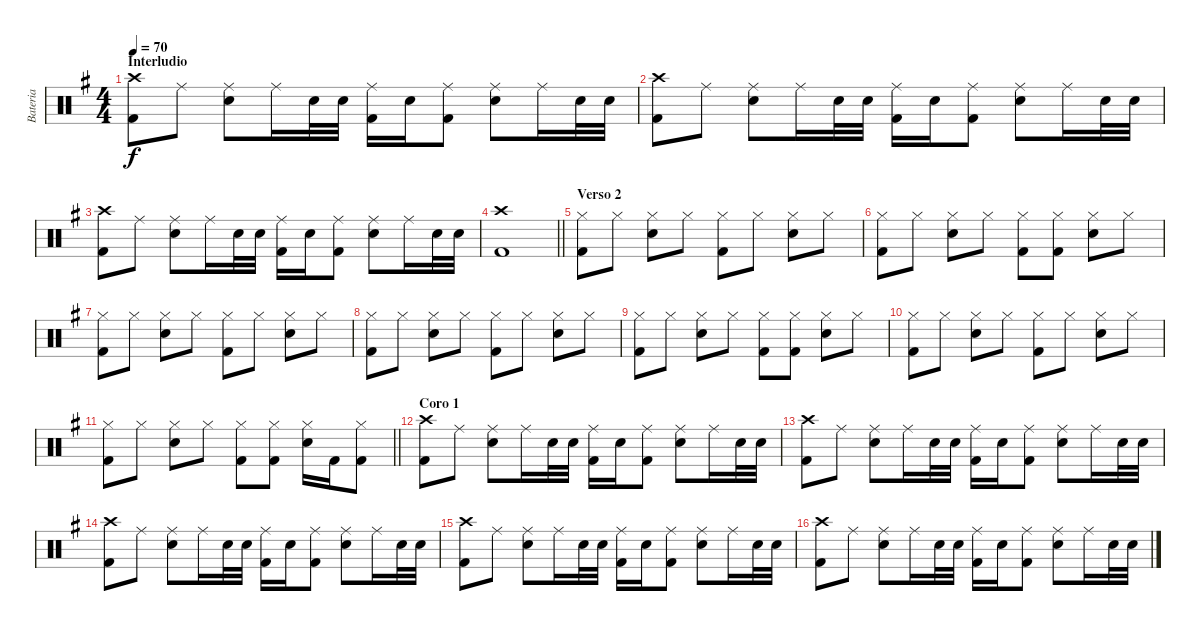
\track ("Bateria" "Bateria") {instrument percussion}
\staff {score}
\articulation defaults
\ts (4 4)
\section ("" "Interludio")
\tempo 70
\clef neutral
\ks g
("Kick (hit) 2" "Crash high (hit)").8{dy f} "Ride (middle)".8 ("Electric Snare (hit)" "Ride (middle)").8 "Ride (middle)".16 "Electric Snare (hit)".32 "Electric Snare (hit)".32 ("Kick (hit) 2" "Ride (middle)").16 "Electric Snare (hit)".16 ("Kick (hit) 2" "Ride (middle)").8 ("Electric Snare (hit)" "Ride (middle)").8 "Ride (middle)".16 "Electric Snare (hit)".32 "Electric Snare (hit)".32 |
("Kick (hit) 2" "Crash high (hit)").8 "Ride (middle)".8 ("Electric Snare (hit)" "Ride (middle)").8 "Ride (middle)".16 "Electric Snare (hit)".32 "Electric Snare (hit)".32 ("Kick (hit) 2" "Ride (middle)").16 "Electric Snare (hit)".16 ("Kick (hit) 2" "Ride (middle)").8 ("Electric Snare (hit)" "Ride (middle)").8 "Ride (middle)".16 "Electric Snare (hit)".32 "Electric Snare (hit)".32 |
("Kick (hit) 2" "Crash high (hit)").8 "Ride (middle)".8 ("Electric Snare (hit)" "Ride (middle)").8 "Ride (middle)".16 "Electric Snare (hit)".32 "Electric Snare (hit)".32 ("Kick (hit) 2" "Ride (middle)").16 "Electric Snare (hit)".16 ("Kick (hit) 2" "Ride (middle)").8 ("Electric Snare (hit)" "Ride (middle)").8 "Ride (middle)".16 "Electric Snare (hit)".32 "Electric Snare (hit)".32 |
\barLineRight lightlight
("Kick (hit) 2" "Crash high (hit)").1 |
\section ("" "Verso 2")
("Hi-Hat (closed)" "Kick (hit) 2").8 "Hi-Hat (closed)".8 ("Hi-Hat (closed)" "Electric Snare (hit)").8 "Hi-Hat (closed)".8 ("Hi-Hat (closed)" "Kick (hit) 2").8 "Hi-Hat (closed)".8 ("Hi-Hat (closed)" "Electric Snare (hit)").8 "Hi-Hat (closed)".8 |
("Hi-Hat (closed)" "Kick (hit) 2").8 "Hi-Hat (closed)".8 ("Hi-Hat (closed)" "Electric Snare (hit)").8 "Hi-Hat (closed)".8 ("Hi-Hat (closed)" "Kick (hit) 2").8 ("Hi-Hat (closed)" "Kick (hit) 2").8 ("Hi-Hat (closed)" "Electric Snare (hit)").8 "Hi-Hat (closed)".8 |
("Hi-Hat (closed)" "Kick (hit) 2").8 "Hi-Hat (closed)".8 ("Hi-Hat (closed)" "Electric Snare (hit)").8 "Hi-Hat (closed)".8 ("Hi-Hat (closed)" "Kick (hit) 2").8 "Hi-Hat (closed)".8 ("Hi-Hat (closed)" "Electric Snare (hit)").8 "Hi-Hat (closed)".8 |
("Hi-Hat (closed)" "Kick (hit) 2").8 "Hi-Hat (closed)".8 ("Hi-Hat (closed)" "Electric Snare (hit)").8 "Hi-Hat (closed)".8 ("Hi-Hat (closed)" "Kick (hit) 2").8 "Hi-Hat (closed)".8 ("Hi-Hat (closed)" "Electric Snare (hit)").8 "Hi-Hat (closed)".8 |
("Hi-Hat (closed)" "Kick (hit) 2").8 "Hi-Hat (closed)".8 ("Hi-Hat (closed)" "Electric Snare (hit)").8 "Hi-Hat (closed)".8 ("Hi-Hat (closed)" "Kick (hit) 2").8 ("Hi-Hat (closed)" "Kick (hit) 2").8 ("Hi-Hat (closed)" "Electric Snare (hit)").8 "Hi-Hat (closed)".8 |
("Hi-Hat (closed)" "Kick (hit) 2").8 "Hi-Hat (closed)".8 ("Hi-Hat (closed)" "Electric Snare (hit)").8 "Hi-Hat (closed)".8 ("Hi-Hat (closed)" "Kick (hit) 2").8 "Hi-Hat (closed)".8 ("Hi-Hat (closed)" "Electric Snare (hit)").8 "Hi-Hat (closed)".8 |
\barLineRight lightlight
("Hi-Hat (closed)" "Kick (hit) 2").8 "Hi-Hat (closed)".8 ("Hi-Hat (closed)" "Electric Snare (hit)").8 "Hi-Hat (closed)".8 ("Hi-Hat (closed)" "Kick (hit) 2").8 ("Hi-Hat (closed)" "Kick (hit) 2").8 ("Hi-Hat (closed)" "Electric Snare (hit)").16 "Kick (hit) 2".16 ("Hi-Hat (closed)" "Kick (hit) 2").8 |
\section ("" "Coro 1")
("Kick (hit) 2" "Crash high (hit)").8 "Ride (middle)".8 ("Electric Snare (hit)" "Ride (middle)").8 "Ride (middle)".16 "Electric Snare (hit)".32 "Electric Snare (hit)".32 ("Kick (hit) 2" "Ride (middle)").16 "Electric Snare (hit)".16 ("Kick (hit) 2" "Ride (middle)").8 ("Electric Snare (hit)" "Ride (middle)").8 "Ride (middle)".16 "Electric Snare (hit)".32 "Electric Snare (hit)".32 |
("Kick (hit) 2" "Crash high (hit)").8 "Ride (middle)".8 ("Electric Snare (hit)" "Ride (middle)").8 "Ride (middle)".16 "Electric Snare (hit)".32 "Electric Snare (hit)".32 ("Kick (hit) 2" "Ride (middle)").16 "Electric Snare (hit)".16 ("Kick (hit) 2" "Ride (middle)").8 ("Electric Snare (hit)" "Ride (middle)").8 "Ride (middle)".16 "Electric Snare (hit)".32 "Electric Snare (hit)".32 |
("Kick (hit) 2" "Crash high (hit)").8 "Ride (middle)".8 ("Electric Snare (hit)" "Ride (middle)").8 "Ride (middle)".16 "Electric Snare (hit)".32 "Electric Snare (hit)".32 ("Kick (hit) 2" "Ride (middle)").16 "Electric Snare (hit)".16 ("Kick (hit) 2" "Ride (middle)").8 ("Electric Snare (hit)" "Ride (middle)").8 "Ride (middle)".16 "Electric Snare (hit)".32 "Electric Snare (hit)".32 |
("Kick (hit) 2" "Crash high (hit)").8 "Ride (middle)".8 ("Electric Snare (hit)" "Ride (middle)").8 "Ride (middle)".16 "Electric Snare (hit)".32 "Electric Snare (hit)".32 ("Kick (hit) 2" "Ride (middle)").16 "Electric Snare (hit)".16 ("Kick (hit) 2" "Ride (middle)").8 ("Electric Snare (hit)" "Ride (middle)").8 "Ride (middle)".16 "Electric Snare (hit)".32 "Electric Snare (hit)".32 |
("Kick (hit) 2" "Crash high (hit)").8 "Ride (middle)".8 ("Electric Snare (hit)" "Ride (middle)").8 "Ride (middle)".16 "Electric Snare (hit)".32 "Electric Snare (hit)".32 ("Kick (hit) 2" "Ride (middle)").16 "Electric Snare (hit)".16 ("Kick (hit) 2" "Ride (middle)").8 ("Electric Snare (hit)" "Ride (middle)").8 "Ride (middle)".16 "Electric Snare (hit)".32 "Electric Snare (hit)".32
